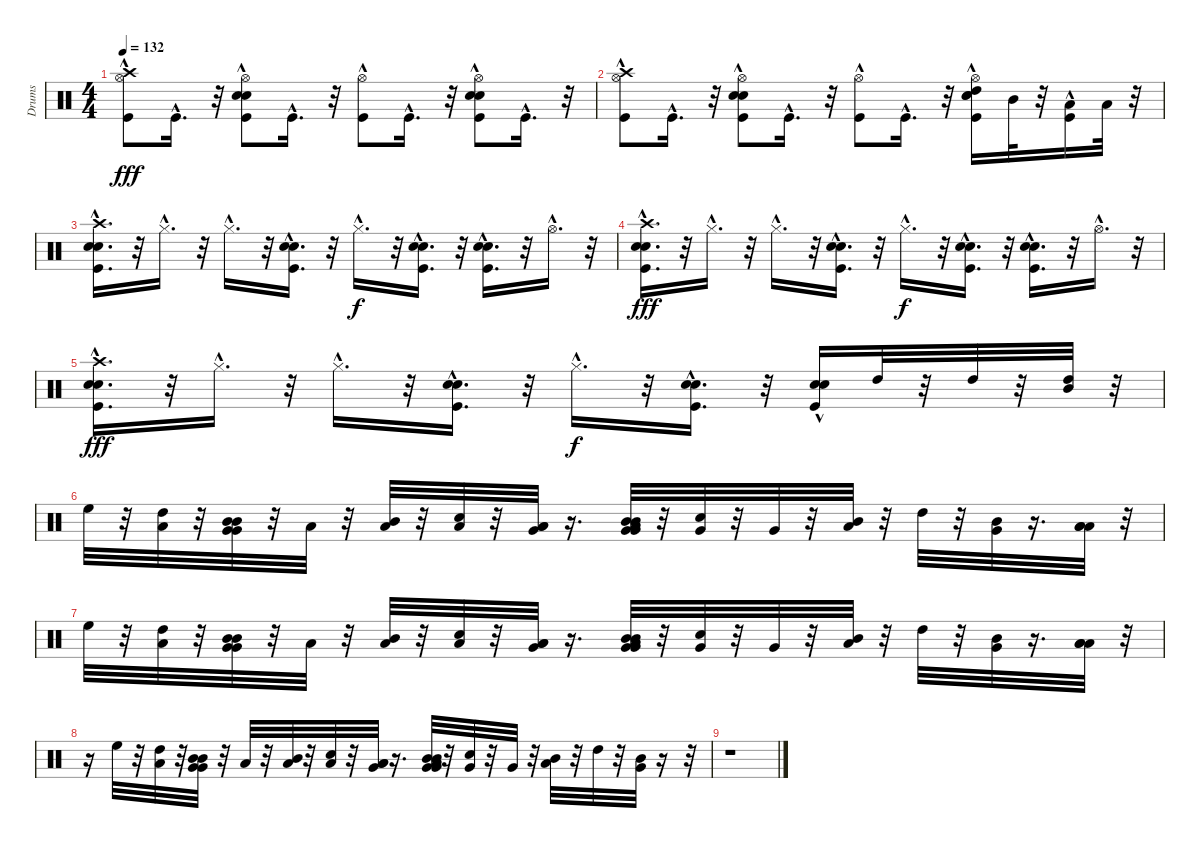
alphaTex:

\track ("Drums" "Drums") {instrument percussion}
\staff {score}
\articulation defaults
\ts (4 4)
\tempo 132
\clef neutral
\ks c
("Hi-Hat (open)" "Kick (hit)"{hac} "Crash high (hit)").8{dy fff} "Kick (hit)"{hac}.16{d} r.32 ("Hi-Hat (open)" "Kick (hit)"{hac} "Snare (hit) 2"{hac} "Electric Snare (hit)"{hac}).8 "Kick (hit)"{hac}.16{d} r.32 ("Hi-Hat (open)" "Kick (hit)"{hac}).8 "Kick (hit)"{hac}.16{d} r.32 ("Hi-Hat (open)" "Kick (hit)"{hac} "Snare (hit) 2"{hac} "Electric Snare (hit)"{hac}).8 "Kick (hit)"{hac}.16{d} r.32 |
("Hi-Hat (open)" "Kick (hit)"{hac} "Crash high (hit)"{hac}).8 "Kick (hit)"{hac}.16{d} r.32 ("Hi-Hat (open)" "Kick (hit)"{hac} "Snare (hit) 2"{hac} "Electric Snare (hit)"{hac}).8 "Kick (hit)"{hac}.16{d} r.32 ("Hi-Hat (open)" "Kick (hit)"{hac}).8 "Kick (hit)"{hac}.16{d} r.32 ("Hi-Hat (open)" "Kick (hit)"{hac} "Snare (hit) 2"{hac} "Electric Snare (hit)"{hac} "High Tom (hit)").16 "Mid Tom (hit)".32 r.32 ("Kick (hit)"{hac} "Low Tom (hit)").16 "Low Tom (hit)".32 r.32 |
("Kick (hit)"{hac} "Snare (hit) 2"{hac} "Electric Snare (hit)"{hac} "Crash high (hit)"{hac}).16{d} r.32 "Hi-Hat (closed)"{hac}.16{d} r.32 "Hi-Hat (closed)"{hac}.16{d} r.32 ("Kick (hit)"{hac} "Snare (hit) 2"{hac} "Electric Snare (hit)"{hac}).16{d} r.32 "Hi-Hat (closed)"{hac}.16{d dy f} r.32 ("Kick (hit)"{hac} "Snare (hit) 2"{hac} "Electric Snare (hit)"{hac}).16{d} r.32 ("Kick (hit)"{hac} "Snare (hit) 2"{hac} "Electric Snare (hit)"{hac}).16{d} r.32 "Hi-Hat (open)"{hac}.16{d} r.32 |
("Kick (hit)"{hac} "Snare (hit) 2"{hac} "Electric Snare (hit)"{hac} "Crash high (hit)"{hac}).16{d dy fff} r.32 "Hi-Hat (closed)"{hac}.16{d} r.32 "Hi-Hat (closed)"{hac}.16{d} r.32 ("Kick (hit)"{hac} "Snare (hit) 2"{hac} "Electric Snare (hit)"{hac}).16{d} r.32 "Hi-Hat (closed)"{hac}.16{d dy f} r.32 ("Kick (hit)"{hac} "Snare (hit) 2"{hac} "Electric Snare (hit)"{hac}).16{d} r.32 ("Kick (hit)"{hac} "Snare (hit) 2"{hac} "Electric Snare (hit)"{hac}).16{d} r.32 "Hi-Hat (open)"{hac}.16{d} r.32 |
("Kick (hit)"{hac} "Snare (hit) 2"{hac} "Electric Snare (hit)"{hac} "Crash high (hit)"{hac}).16{d dy fff} r.32 "Hi-Hat (closed)"{hac}.16{d} r.32 "Hi-Hat (closed)"{hac}.16{d} r.32 ("Kick (hit)"{hac} "Snare (hit) 2"{hac} "Electric Snare (hit)"{hac}).16{d} r.32 "Hi-Hat (closed)"{hac}.16{d dy f} r.32 ("Kick (hit)"{hac} "Snare (hit) 2"{hac} "Electric Snare (hit)"{hac}).16{d} r.32 ("Kick (hit)"{hac} "Snare (hit) 2"{hac} "Electric Snare (hit)"{hac}).16 "High Tom (hit)".32 r.32 "High Tom (hit)".32 r.32 ("High Tom (hit)" "Mid Tom (hit)").32 r.32 |
"High Floor Tom (hit)".32 r.32 ("High Tom (hit)" "Low Floor Tom (hit)").32 r.32 ("Mid Tom (hit)" "Very Low Tom (hit)" "Very Low Tom (hit)" "Mid Tom (hit)").32 r.32 "Low Tom (hit)".32 r.32 ("Low Tom (hit)" "Mid Tom (hit)").32 r.32 ("Low Tom (hit)" "Electric Snare (hit)").32 r.32 ("Low Tom (hit)" "Low Tom (hit)" "Very Low Tom (hit)").32 r.16{d} ("Mid Tom (hit)" "Mid Tom (hit)" "Very Low Tom (hit)" "Low Floor Tom (hit)" "Very Low Tom (hit)").32 r.32 ("Very Low Tom (hit)" "Electric Snare (hit)").32 r.32 "Very Low Tom (hit)".32 r.32 ("Mid Tom (hit)" "Low Floor Tom (hit)").32 r.32 "High Tom (hit)".32 r.32 ("Mid Tom (hit)" "Very Low Tom (hit)").32 r.16{d} ("Low Tom (hit)" "Low Tom (hit)" "Low Tom (hit)").32 r.32 |
"High Floor Tom (hit)".32 r.32 ("High Tom (hit)" "Low Floor Tom (hit)").32 r.32 ("Mid Tom (hit)" "Very Low Tom (hit)" "Very Low Tom (hit)" "Mid Tom (hit)").32 r.32 "Low Tom (hit)".32 r.32 ("Low Tom (hit)" "Mid Tom (hit)").32 r.32 ("Low Tom (hit)" "Electric Snare (hit)").32 r.32 ("Low Tom (hit)" "Low Tom (hit)" "Very Low Tom (hit)").32 r.16{d} ("Mid Tom (hit)" "Mid Tom (hit)" "Very Low Tom (hit)" "Low Floor Tom (hit)" "Very Low Tom (hit)").32 r.32 ("Very Low Tom (hit)" "Electric Snare (hit)").32 r.32 "Very Low Tom (hit)".32 r.32 ("Mid Tom (hit)" "Low Floor Tom (hit)").32 r.32 "High Tom (hit)".32 r.32 ("Mid Tom (hit)" "Very Low Tom (hit)").32 r.16{d} ("Low Tom (hit)" "Low Tom (hit)" "Low Tom (hit)").32 r.32 |
r.16 "High Floor Tom (hit)".32 r.32 ("High Tom (hit)" "Low Floor Tom (hit)").32 r.32 ("Mid Tom (hit)" "Very Low Tom (hit)" "Very Low Tom (hit)" "Mid Tom (hit)").32 r.32 "Low Tom (hit)".32 r.32 ("Low Tom (hit)" "Mid Tom (hit)").32 r.32 ("Low Tom (hit)" "Electric Snare (hit)").32 r.32 ("Low Tom (hit)" "Low Tom (hit)" "Very Low Tom (hit)").32 r.16{d} ("Mid Tom (hit)" "Mid Tom (hit)" "Very Low Tom (hit)" "Low Floor Tom (hit)" "Very Low Tom (hit)").32 r.32 ("Very Low Tom (hit)" "Electric Snare (hit)").32 r.32 "Very Low Tom (hit)".32 r.32 ("Mid Tom (hit)" "Low Floor Tom (hit)").32 r.32 "High Tom (hit)".32 r.32 ("Mid Tom (hit)" "Very Low Tom (hit)").32 r.16 r.32 |
r.1
